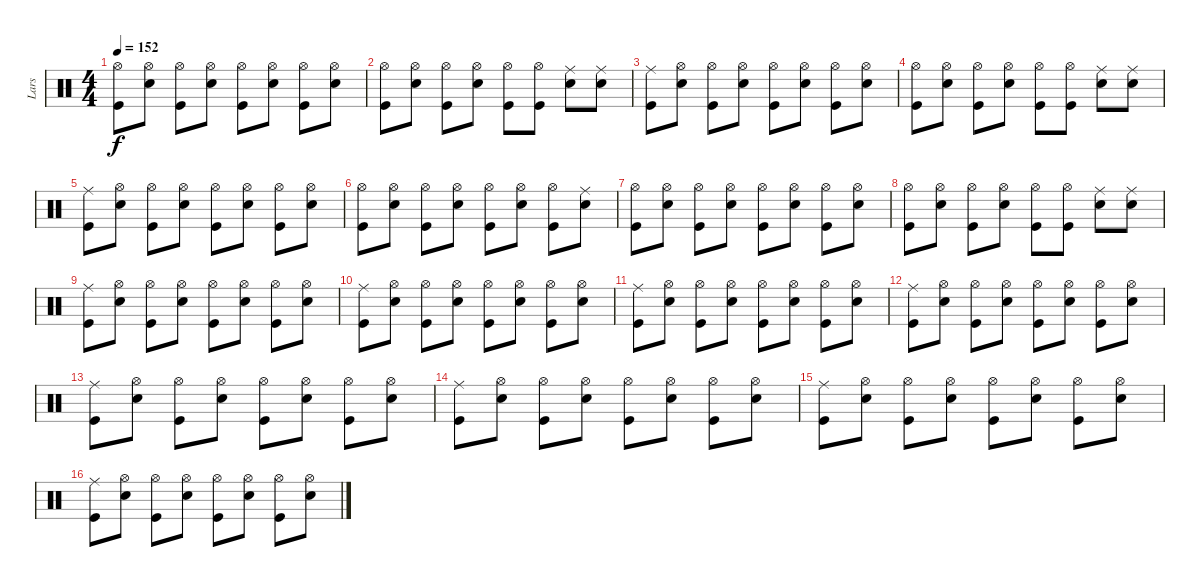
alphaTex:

\track ("Lars" "Lars") {instrument percussion}
\staff {score}
\articulation defaults
\ts (4 4)
\tempo 152
\clef neutral
\ks c
("Hi-Hat (open)" "Kick (hit)").8{dy f} ("Hi-Hat (open)" "Snare (hit) 2").8 ("Hi-Hat (open)" "Kick (hit)").8 ("Hi-Hat (open)" "Snare (hit) 2").8 ("Hi-Hat (open)" "Kick (hit)").8 ("Hi-Hat (open)" "Snare (hit) 2").8 ("Hi-Hat (open)" "Kick (hit)").8 ("Hi-Hat (open)" "Snare (hit) 2").8 |
("Hi-Hat (open)" "Kick (hit)").8 ("Hi-Hat (open)" "Snare (hit) 2").8 ("Hi-Hat (open)" "Kick (hit)").8 ("Hi-Hat (open)" "Snare (hit) 2").8 ("Hi-Hat (open)" "Kick (hit)").8 ("Hi-Hat (open)" "Kick (hit)").8 ("Ride (middle)" "Snare (hit) 2").8 ("Ride (middle)" "Snare (hit) 2").8 |
("Ride (middle)" "Kick (hit)").8 ("Hi-Hat (open)" "Snare (hit) 2").8 ("Hi-Hat (open)" "Kick (hit)").8 ("Hi-Hat (open)" "Snare (hit) 2").8 ("Hi-Hat (open)" "Kick (hit)").8 ("Hi-Hat (open)" "Snare (hit) 2").8 ("Hi-Hat (open)" "Kick (hit)").8 ("Hi-Hat (open)" "Snare (hit) 2").8 |
("Hi-Hat (open)" "Kick (hit)").8 ("Hi-Hat (open)" "Snare (hit) 2").8 ("Hi-Hat (open)" "Kick (hit)").8 ("Hi-Hat (open)" "Snare (hit) 2").8 ("Hi-Hat (open)" "Kick (hit)").8 ("Hi-Hat (open)" "Kick (hit)").8 ("Ride (middle)" "Snare (hit) 2").8 ("Ride (middle)" "Snare (hit) 2").8 |
("Ride (middle)" "Kick (hit)").8 ("Hi-Hat (open)" "Snare (hit) 2").8 ("Hi-Hat (open)" "Kick (hit)").8 ("Hi-Hat (open)" "Snare (hit) 2").8 ("Hi-Hat (open)" "Kick (hit)").8 ("Hi-Hat (open)" "Snare (hit) 2").8 ("Hi-Hat (open)" "Kick (hit)").8 ("Hi-Hat (open)" "Snare (hit) 2").8 |
("Hi-Hat (open)" "Kick (hit)").8 ("Hi-Hat (open)" "Snare (hit) 2").8 ("Hi-Hat (open)" "Kick (hit)").8 ("Hi-Hat (open)" "Snare (hit) 2").8 ("Hi-Hat (open)" "Kick (hit)").8 ("Hi-Hat (open)" "Snare (hit) 2").8 ("Hi-Hat (open)" "Kick (hit)").8 ("Ride (middle)" "Snare (hit) 2").8 |
("Hi-Hat (open)" "Kick (hit)").8 ("Hi-Hat (open)" "Snare (hit) 2").8 ("Hi-Hat (open)" "Kick (hit)").8 ("Hi-Hat (open)" "Snare (hit) 2").8 ("Hi-Hat (open)" "Kick (hit)").8 ("Hi-Hat (open)" "Snare (hit) 2").8 ("Hi-Hat (open)" "Kick (hit)").8 ("Hi-Hat (open)" "Snare (hit) 2").8 |
("Hi-Hat (open)" "Kick (hit)").8 ("Hi-Hat (open)" "Snare (hit) 2").8 ("Hi-Hat (open)" "Kick (hit)").8 ("Hi-Hat (open)" "Snare (hit) 2").8 ("Hi-Hat (open)" "Kick (hit)").8 ("Hi-Hat (open)" "Kick (hit)").8 ("Ride (middle)" "Snare (hit) 2").8 ("Ride (middle)" "Snare (hit) 2").8 |
("Ride (middle)" "Kick (hit)").8 ("Hi-Hat (open)" "Snare (hit) 2").8 ("Hi-Hat (open)" "Kick (hit)").8 ("Hi-Hat (open)" "Snare (hit) 2").8 ("Hi-Hat (open)" "Kick (hit)").8 ("Hi-Hat (open)" "Snare (hit) 2").8 ("Hi-Hat (open)" "Kick (hit)").8 ("Hi-Hat (open)" "Snare (hit) 2").8 |
("Ride (middle)" "Kick (hit)").8 ("Hi-Hat (open)" "Snare (hit) 2").8 ("Hi-Hat (open)" "Kick (hit)").8 ("Hi-Hat (open)" "Snare (hit) 2").8 ("Hi-Hat (open)" "Kick (hit)").8 ("Hi-Hat (open)" "Snare (hit) 2").8 ("Hi-Hat (open)" "Kick (hit)").8 ("Hi-Hat (open)" "Snare (hit) 2").8 |
("Ride (middle)" "Kick (hit)").8 ("Hi-Hat (open)" "Snare (hit) 2").8 ("Hi-Hat (open)" "Kick (hit)").8 ("Hi-Hat (open)" "Snare (hit) 2").8 ("Hi-Hat (open)" "Kick (hit)").8 ("Hi-Hat (open)" "Snare (hit) 2").8 ("Hi-Hat (open)" "Kick (hit)").8 ("Hi-Hat (open)" "Snare (hit) 2").8 |
("Ride (middle)" "Kick (hit)").8 ("Hi-Hat (open)" "Snare (hit) 2").8 ("Hi-Hat (open)" "Kick (hit)").8 ("Hi-Hat (open)" "Snare (hit) 2").8 ("Hi-Hat (open)" "Kick (hit)").8 ("Hi-Hat (open)" "Snare (hit) 2").8 ("Hi-Hat (open)" "Kick (hit)").8 ("Hi-Hat (open)" "Snare (hit) 2").8 |
("Ride (middle)" "Kick (hit)").8 ("Hi-Hat (open)" "Snare (hit) 2").8 ("Hi-Hat (open)" "Kick (hit)").8 ("Hi-Hat (open)" "Snare (hit) 2").8 ("Hi-Hat (open)" "Kick (hit)").8 ("Hi-Hat (open)" "Snare (hit) 2").8 ("Hi-Hat (open)" "Kick (hit)").8 ("Hi-Hat (open)" "Snare (hit) 2").8 |
("Ride (middle)" "Kick (hit)").8 ("Hi-Hat (open)" "Snare (hit) 2").8 ("Hi-Hat (open)" "Kick (hit)").8 ("Hi-Hat (open)" "Snare (hit) 2").8 ("Hi-Hat (open)" "Kick (hit)").8 ("Hi-Hat (open)" "Snare (hit) 2").8 ("Hi-Hat (open)" "Kick (hit)").8 ("Hi-Hat (open)" "Snare (hit) 2").8 |
("Ride (middle)" "Kick (hit)").8 ("Hi-Hat (open)" "Snare (hit) 2").8 ("Hi-Hat (open)" "Kick (hit)").8 ("Hi-Hat (open)" "Snare (hit) 2").8 ("Hi-Hat (open)" "Kick (hit)").8 ("Hi-Hat (open)" "Snare (hit) 2").8 ("Hi-Hat (open)" "Kick (hit)").8 ("Hi-Hat (open)" "Snare (hit) 2").8 |
("Ride (middle)" "Kick (hit)").8 ("Hi-Hat (open)" "Snare (hit) 2").8 ("Hi-Hat (open)" "Kick (hit)").8 ("Hi-Hat (open)" "Snare (hit) 2").8 ("Hi-Hat (open)" "Kick (hit)").8 ("Hi-Hat (open)" "Snare (hit) 2").8 ("Hi-Hat (open)" "Kick (hit)").8 ("Hi-Hat (open)" "Snare (hit) 2").8
